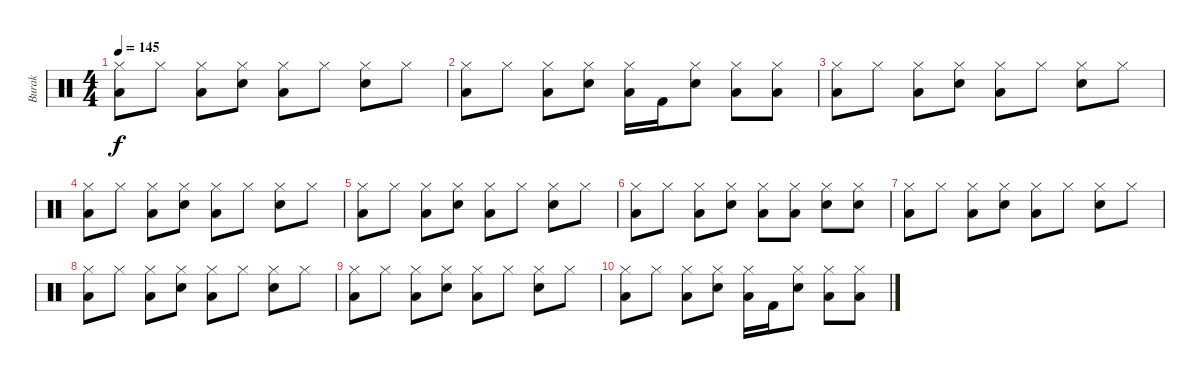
\track ("Burak" "Burak") {instrument percussion}
\staff {score}
\articulation defaults
\ts (4 4)
\tempo 145
\clef neutral
\ks c
("Low Tom (hit)" "Hi-Hat (closed)").8{dy f} "Hi-Hat (closed)".8 ("Low Tom (hit)" "Hi-Hat (closed)").8 ("Electric Snare (hit)" "Hi-Hat (closed)").8 ("Low Tom (hit)" "Hi-Hat (closed)").8 "Hi-Hat (closed)".8 ("Electric Snare (hit)" "Hi-Hat (closed)").8 "Hi-Hat (closed)".8 |
("Low Tom (hit)" "Hi-Hat (closed)").8 "Hi-Hat (closed)".8 ("Low Tom (hit)" "Hi-Hat (closed)").8 ("Electric Snare (hit)" "Hi-Hat (closed)").8 ("Low Tom (hit)" "Hi-Hat (closed)").16 "Kick (hit) 2".16 ("Electric Snare (hit)" "Hi-Hat (closed)").8 ("Low Tom (hit)" "Hi-Hat (closed)").8 ("Low Tom (hit)" "Hi-Hat (closed)").8 |
("Low Tom (hit)" "Hi-Hat (closed)").8 "Hi-Hat (closed)".8 ("Low Tom (hit)" "Hi-Hat (closed)").8 ("Electric Snare (hit)" "Hi-Hat (closed)").8 ("Low Tom (hit)" "Hi-Hat (closed)").8 "Hi-Hat (closed)".8 ("Electric Snare (hit)" "Hi-Hat (closed)").8 "Hi-Hat (closed)".8 |
("Low Tom (hit)" "Hi-Hat (closed)").8 "Hi-Hat (closed)".8 ("Low Tom (hit)" "Hi-Hat (closed)").8 ("Electric Snare (hit)" "Hi-Hat (closed)").8 ("Low Tom (hit)" "Hi-Hat (closed)").8 "Hi-Hat (closed)".8 ("Electric Snare (hit)" "Hi-Hat (closed)").8 "Hi-Hat (closed)".8 |
("Low Tom (hit)" "Hi-Hat (closed)").8 "Hi-Hat (closed)".8 ("Low Tom (hit)" "Hi-Hat (closed)").8 ("Electric Snare (hit)" "Hi-Hat (closed)").8 ("Low Tom (hit)" "Hi-Hat (closed)").8 "Hi-Hat (closed)".8 ("Electric Snare (hit)" "Hi-Hat (closed)").8 "Hi-Hat (closed)".8 |
("Low Tom (hit)" "Hi-Hat (closed)").8 "Hi-Hat (closed)".8 ("Low Tom (hit)" "Hi-Hat (closed)").8 ("Electric Snare (hit)" "Hi-Hat (closed)").8 ("Low Tom (hit)" "Hi-Hat (closed)").8 ("Low Tom (hit)" "Hi-Hat (closed)").8 ("Electric Snare (hit)" "Hi-Hat (closed)").8 ("Electric Snare (hit)" "Hi-Hat (closed)").8 |
("Low Tom (hit)" "Hi-Hat (closed)").8 "Hi-Hat (closed)".8 ("Low Tom (hit)" "Hi-Hat (closed)").8 ("Electric Snare (hit)" "Hi-Hat (closed)").8 ("Low Tom (hit)" "Hi-Hat (closed)").8 "Hi-Hat (closed)".8 ("Electric Snare (hit)" "Hi-Hat (closed)").8 "Hi-Hat (closed)".8 |
("Low Tom (hit)" "Hi-Hat (closed)").8 "Hi-Hat (closed)".8 ("Low Tom (hit)" "Hi-Hat (closed)").8 ("Electric Snare (hit)" "Hi-Hat (closed)").8 ("Low Tom (hit)" "Hi-Hat (closed)").8 "Hi-Hat (closed)".8 ("Electric Snare (hit)" "Hi-Hat (closed)").8 "Hi-Hat (closed)".8 |
("Low Tom (hit)" "Hi-Hat (closed)").8 "Hi-Hat (closed)".8 ("Low Tom (hit)" "Hi-Hat (closed)").8 ("Electric Snare (hit)" "Hi-Hat (closed)").8 ("Low Tom (hit)" "Hi-Hat (closed)").8 "Hi-Hat (closed)".8 ("Electric Snare (hit)" "Hi-Hat (closed)").8 "Hi-Hat (closed)".8 |
("Low Tom (hit)" "Hi-Hat (closed)").8 "Hi-Hat (closed)".8 ("Low Tom (hit)" "Hi-Hat (closed)").8 ("Electric Snare (hit)" "Hi-Hat (closed)").8 ("Low Tom (hit)" "Hi-Hat (closed)").16 "Kick (hit) 2".16 ("Electric Snare (hit)" "Hi-Hat (closed)").8 ("Low Tom (hit)" "Hi-Hat (closed)").8 ("Low Tom (hit)" "Hi-Hat (closed)").8
